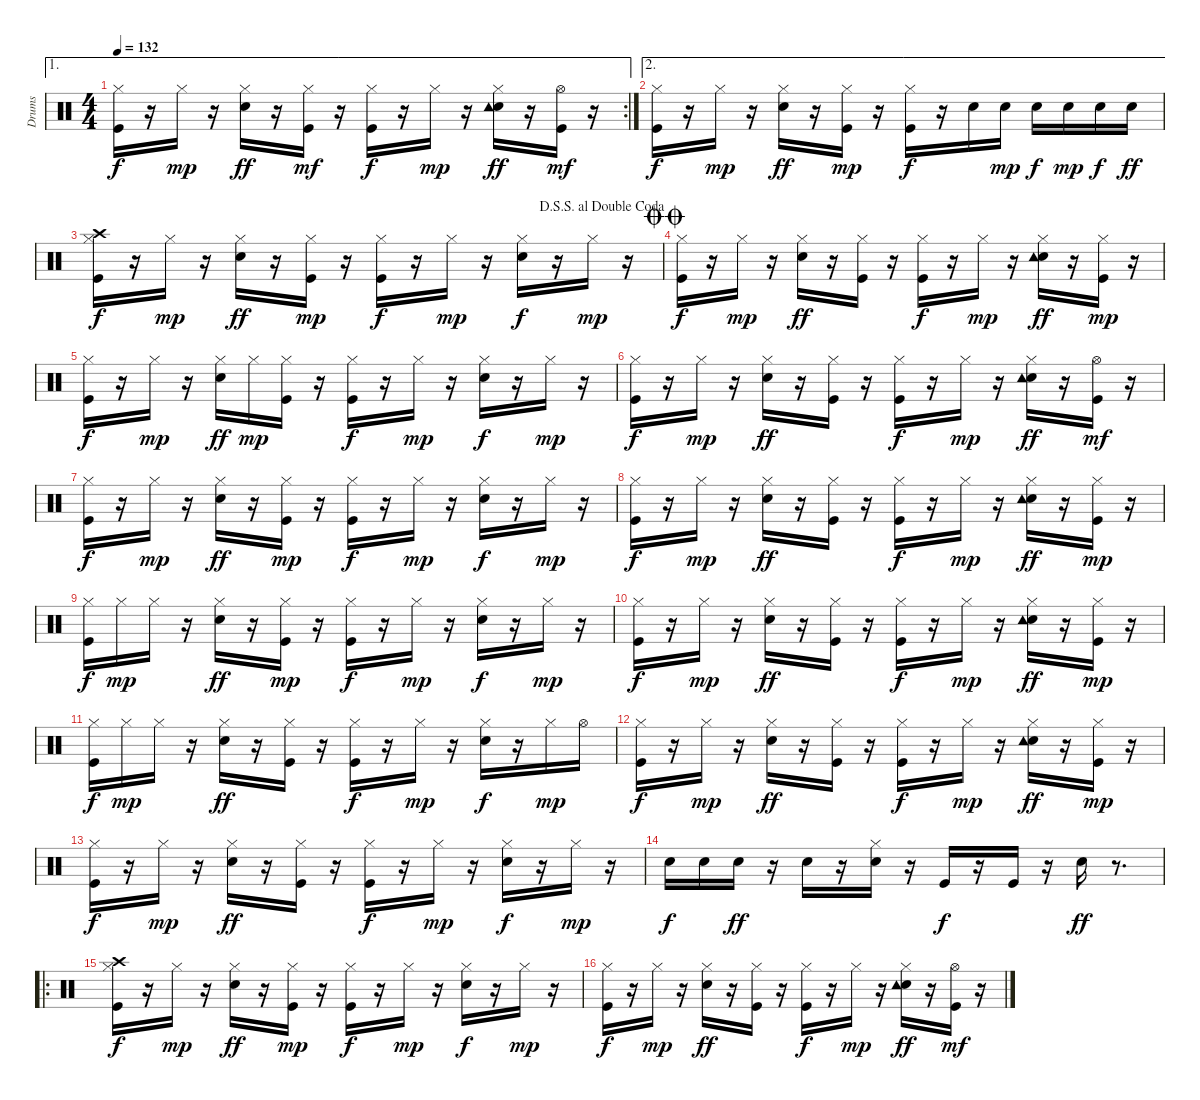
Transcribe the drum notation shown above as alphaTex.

\track ("Drums" "Drums") {instrument percussion}
\staff {score}
\articulation defaults
\ae 1
\rc 2
\ts (4 4)
\tempo 132
\clef neutral
\ks c
("Kick (hit)" "Hi-Hat (closed)").16{dy f} r.16 "Hi-Hat (closed)".16{dy mp} r.16 ("Snare (hit) 2" "Hi-Hat (closed)").16{dy ff} r.16 ("Kick (hit)" "Hi-Hat (closed)").16{dy mf} r.16 ("Kick (hit)" "Hi-Hat (closed)").16{dy f} r.16 "Hi-Hat (closed)".16{dy mp} r.16 ("Snare (hit) 2" "Hi-Hat (closed)" "Tambourine (hit)").16{dy ff} r.16 ("Kick (hit)" "Hi-Hat (open)").16{dy mf} r.16 |
\ae 2
("Kick (hit)" "Hi-Hat (closed)").16{dy f} r.16 "Hi-Hat (closed)".16{dy mp} r.16 ("Snare (hit) 2" "Hi-Hat (closed)").16{dy ff} r.16 ("Kick (hit)" "Hi-Hat (closed)").16{dy mp} r.16 ("Kick (hit)" "Hi-Hat (closed)").16{dy f} r.16 "Snare (hit) 2".16 "Snare (hit) 2".16{dy mp} "Snare (hit) 2".16{dy f} "Snare (hit) 2".16{dy mp} "Snare (hit) 2".16{dy f} "Snare (hit) 2".16{dy ff} |
\jump dalsegnosegnoaldoublecoda
("Kick (hit)" "Hi-Hat (closed)" "Crash high (hit)").16{dy f} r.16 "Hi-Hat (closed)".16{dy mp} r.16 ("Snare (hit) 2" "Hi-Hat (closed)").16{dy ff} r.16 ("Kick (hit)" "Hi-Hat (closed)").16{dy mp} r.16 ("Kick (hit)" "Hi-Hat (closed)").16{dy f} r.16 "Hi-Hat (closed)".16{dy mp} r.16 ("Snare (hit) 2" "Hi-Hat (closed)").16{dy f} r.16 "Hi-Hat (closed)".16{dy mp} r.16 |
\jump doublecoda
("Kick (hit)" "Hi-Hat (closed)").16{dy f} r.16 "Hi-Hat (closed)".16{dy mp} r.16 ("Snare (hit) 2" "Hi-Hat (closed)").16{dy ff} r.16 ("Kick (hit)" "Hi-Hat (closed)").16 r.16 ("Kick (hit)" "Hi-Hat (closed)").16{dy f} r.16 "Hi-Hat (closed)".16{dy mp} r.16 ("Snare (hit) 2" "Hi-Hat (closed)" "Tambourine (hit)").16{dy ff} r.16 ("Kick (hit)" "Hi-Hat (closed)").16{dy mp} r.16 |
("Kick (hit)" "Hi-Hat (closed)").16{dy f} r.16 "Hi-Hat (closed)".16{dy mp} r.16 ("Snare (hit) 2" "Hi-Hat (closed)").16{dy ff} "Hi-Hat (closed)".16{dy mp} ("Kick (hit)" "Hi-Hat (closed)").16 r.16 ("Kick (hit)" "Hi-Hat (closed)").16{dy f} r.16 "Hi-Hat (closed)".16{dy mp} r.16 ("Snare (hit) 2" "Hi-Hat (closed)").16{dy f} r.16 "Hi-Hat (closed)".16{dy mp} r.16 |
("Kick (hit)" "Hi-Hat (closed)").16{dy f} r.16 "Hi-Hat (closed)".16{dy mp} r.16 ("Snare (hit) 2" "Hi-Hat (closed)").16{dy ff} r.16 ("Kick (hit)" "Hi-Hat (closed)").16 r.16 ("Kick (hit)" "Hi-Hat (closed)").16{dy f} r.16 "Hi-Hat (closed)".16{dy mp} r.16 ("Snare (hit) 2" "Hi-Hat (closed)" "Tambourine (hit)").16{dy ff} r.16 ("Kick (hit)" "Hi-Hat (open)").16{dy mf} r.16 |
("Kick (hit)" "Hi-Hat (closed)").16{dy f} r.16 "Hi-Hat (closed)".16{dy mp} r.16 ("Snare (hit) 2" "Hi-Hat (closed)").16{dy ff} r.16 ("Kick (hit)" "Hi-Hat (closed)").16{dy mp} r.16 ("Kick (hit)" "Hi-Hat (closed)").16{dy f} r.16 "Hi-Hat (closed)".16{dy mp} r.16 ("Snare (hit) 2" "Hi-Hat (closed)").16{dy f} r.16 "Hi-Hat (closed)".16{dy mp} r.16 |
("Kick (hit)" "Hi-Hat (closed)").16{dy f} r.16 "Hi-Hat (closed)".16{dy mp} r.16 ("Snare (hit) 2" "Hi-Hat (closed)").16{dy ff} r.16 ("Kick (hit)" "Hi-Hat (closed)").16 r.16 ("Kick (hit)" "Hi-Hat (closed)").16{dy f} r.16 "Hi-Hat (closed)".16{dy mp} r.16 ("Snare (hit) 2" "Hi-Hat (closed)" "Tambourine (hit)").16{dy ff} r.16 ("Kick (hit)" "Hi-Hat (closed)").16{dy mp} r.16 |
("Kick (hit)" "Hi-Hat (closed)").16{dy f} "Hi-Hat (closed)".16{dy mp} "Hi-Hat (closed)".16 r.16 ("Snare (hit) 2" "Hi-Hat (closed)").16{dy ff} r.16 ("Kick (hit)" "Hi-Hat (closed)").16{dy mp} r.16 ("Kick (hit)" "Hi-Hat (closed)").16{dy f} r.16 "Hi-Hat (closed)".16{dy mp} r.16 ("Snare (hit) 2" "Hi-Hat (closed)").16{dy f} r.16 "Hi-Hat (closed)".16{dy mp} r.16 |
("Kick (hit)" "Hi-Hat (closed)").16{dy f} r.16 "Hi-Hat (closed)".16{dy mp} r.16 ("Snare (hit) 2" "Hi-Hat (closed)").16{dy ff} r.16 ("Kick (hit)" "Hi-Hat (closed)").16 r.16 ("Kick (hit)" "Hi-Hat (closed)").16{dy f} r.16 "Hi-Hat (closed)".16{dy mp} r.16 ("Snare (hit) 2" "Hi-Hat (closed)" "Tambourine (hit)").16{dy ff} r.16 ("Kick (hit)" "Hi-Hat (closed)").16{dy mp} r.16 |
("Kick (hit)" "Hi-Hat (closed)").16{dy f} "Hi-Hat (closed)".16{dy mp} "Hi-Hat (closed)".16 r.16 ("Snare (hit) 2" "Hi-Hat (closed)").16{dy ff} r.16 ("Kick (hit)" "Hi-Hat (closed)").16 r.16 ("Kick (hit)" "Hi-Hat (closed)").16{dy f} r.16 "Hi-Hat (closed)".16{dy mp} r.16 ("Snare (hit) 2" "Hi-Hat (closed)").16{dy f} r.16 "Hi-Hat (closed)".16{dy mp} "Hi-Hat (open)".16 |
("Kick (hit)" "Hi-Hat (closed)").16{dy f} r.16 "Hi-Hat (closed)".16{dy mp} r.16 ("Snare (hit) 2" "Hi-Hat (closed)").16{dy ff} r.16 ("Kick (hit)" "Hi-Hat (closed)").16 r.16 ("Kick (hit)" "Hi-Hat (closed)").16{dy f} r.16 "Hi-Hat (closed)".16{dy mp} r.16 ("Snare (hit) 2" "Hi-Hat (closed)" "Tambourine (hit)").16{dy ff} r.16 ("Kick (hit)" "Hi-Hat (closed)").16{dy mp} r.16 |
("Kick (hit)" "Hi-Hat (closed)").16{dy f} r.16 "Hi-Hat (closed)".16{dy mp} r.16 ("Snare (hit) 2" "Hi-Hat (closed)").16{dy ff} r.16 ("Kick (hit)" "Hi-Hat (closed)").16 r.16 ("Kick (hit)" "Hi-Hat (closed)").16{dy f} r.16 "Hi-Hat (closed)".16{dy mp} r.16 ("Snare (hit) 2" "Hi-Hat (closed)").16{dy f} r.16 "Hi-Hat (closed)".16{dy mp} r.16 |
"Snare (hit) 2".16{dy f} "Snare (hit) 2".16 "Snare (hit) 2".16{dy ff} r.16 "Snare (hit) 2".16 r.16 ("Snare (hit) 2" "Hi-Hat (closed)").16 r.16 "Kick (hit)".16{dy f} r.16 "Kick (hit)".16 r.16 "Snare (hit) 2".16{dy ff} r.8{d} |
\ro
("Kick (hit)" "Hi-Hat (closed)" "Crash high (hit)").16{dy f} r.16 "Hi-Hat (closed)".16{dy mp} r.16 ("Snare (hit) 2" "Hi-Hat (closed)").16{dy ff} r.16 ("Kick (hit)" "Hi-Hat (closed)").16{dy mp} r.16 ("Kick (hit)" "Hi-Hat (closed)").16{dy f} r.16 "Hi-Hat (closed)".16{dy mp} r.16 ("Snare (hit) 2" "Hi-Hat (closed)").16{dy f} r.16 "Hi-Hat (closed)".16{dy mp} r.16 |
("Kick (hit)" "Hi-Hat (closed)").16{dy f} r.16 "Hi-Hat (closed)".16{dy mp} r.16 ("Snare (hit) 2" "Hi-Hat (closed)").16{dy ff} r.16 ("Kick (hit)" "Hi-Hat (closed)").16 r.16 ("Kick (hit)" "Hi-Hat (closed)").16{dy f} r.16 "Hi-Hat (closed)".16{dy mp} r.16 ("Snare (hit) 2" "Hi-Hat (closed)" "Tambourine (hit)").16{dy ff} r.16 ("Kick (hit)" "Hi-Hat (open)").16{dy mf} r.16
